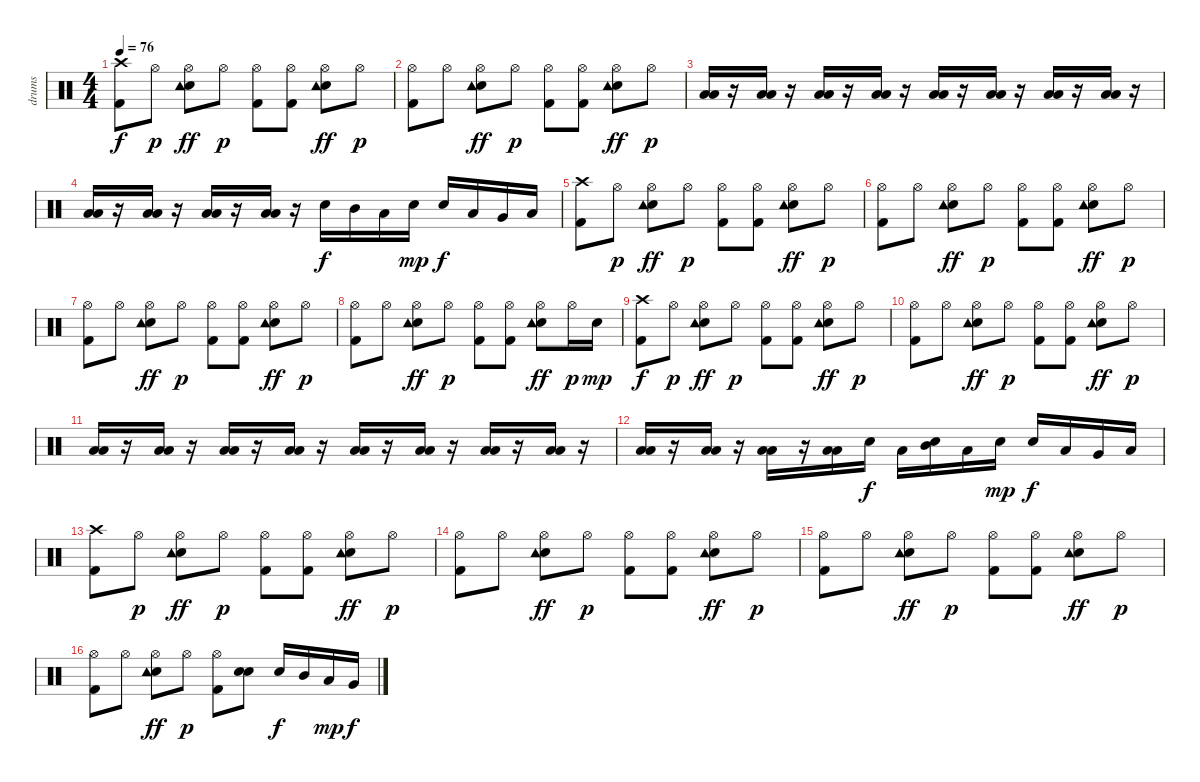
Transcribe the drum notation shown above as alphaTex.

\track ("drums" "drums") {instrument percussion}
\staff {score}
\articulation defaults
\ts (4 4)
\tempo 76
\clef neutral
\ks c
("Crash high (hit)" "Kick (hit) 2").8{dy f} "Hi-Hat (open)".8{dy p} ("Hi-Hat (open)" "Snare (hit) 2" "Tambourine (hit)").8{dy ff} "Hi-Hat (open)".8{dy p} ("Hi-Hat (open)" "Kick (hit) 2").8 ("Hi-Hat (open)" "Kick (hit) 2").8 ("Hi-Hat (open)" "Snare (hit) 2" "Tambourine (hit)").8{dy ff} "Hi-Hat (open)".8{dy p} |
("Hi-Hat (open)" "Kick (hit) 2").8 "Hi-Hat (open)".8 ("Hi-Hat (open)" "Snare (hit) 2" "Tambourine (hit)").8{dy ff} "Hi-Hat (open)".8{dy p} ("Hi-Hat (open)" "Kick (hit) 2").8 ("Hi-Hat (open)" "Kick (hit) 2").8 ("Hi-Hat (open)" "Snare (hit) 2" "Tambourine (hit)").8{dy ff} "Hi-Hat (open)".8{dy p} |
("Low Tom (hit)" "Low Floor Tom (hit)").16{volume 16} r.16 ("Low Tom (hit)" "Low Floor Tom (hit)").16 r.16 ("Low Tom (hit)" "Low Floor Tom (hit)").16 r.16 ("Low Tom (hit)" "Low Floor Tom (hit)").16 r.16 ("Low Tom (hit)" "Low Floor Tom (hit)").16 r.16 ("Low Tom (hit)" "Low Floor Tom (hit)").16 r.16 ("Low Tom (hit)" "Low Floor Tom (hit)").16 r.16 ("Low Tom (hit)" "Low Floor Tom (hit)").16 r.16 |
("Low Tom (hit)" "Low Floor Tom (hit)").16 r.16 ("Low Tom (hit)" "Low Floor Tom (hit)").16 r.16 ("Low Tom (hit)" "Low Floor Tom (hit)").16 r.16 ("Low Tom (hit)" "Low Floor Tom (hit)").16 r.16 "Snare (hit) 2".16{dy f} "Mid Tom (hit)".16 "Low Tom (hit)".16 "Snare (hit) 2".16{dy mp} "Snare (hit) 2".16{dy f} "Low Tom (hit)".16 "Very Low Tom (hit)".16 "Low Floor Tom (hit)".16 |
("Crash high (hit)" "Kick (hit) 2").8 "Hi-Hat (open)".8{dy p} ("Hi-Hat (open)" "Snare (hit) 2" "Tambourine (hit)").8{dy ff} "Hi-Hat (open)".8{dy p} ("Hi-Hat (open)" "Kick (hit) 2").8 ("Hi-Hat (open)" "Kick (hit) 2").8 ("Hi-Hat (open)" "Snare (hit) 2" "Tambourine (hit)").8{dy ff} "Hi-Hat (open)".8{dy p} |
("Hi-Hat (open)" "Kick (hit) 2").8 "Hi-Hat (open)".8 ("Hi-Hat (open)" "Snare (hit) 2" "Tambourine (hit)").8{dy ff} "Hi-Hat (open)".8{dy p} ("Hi-Hat (open)" "Kick (hit) 2").8 ("Hi-Hat (open)" "Kick (hit) 2").8 ("Hi-Hat (open)" "Snare (hit) 2" "Tambourine (hit)").8{dy ff} "Hi-Hat (open)".8{dy p} |
("Hi-Hat (open)" "Kick (hit) 2").8 "Hi-Hat (open)".8 ("Hi-Hat (open)" "Snare (hit) 2" "Tambourine (hit)").8{dy ff} "Hi-Hat (open)".8{dy p} ("Hi-Hat (open)" "Kick (hit) 2").8 ("Hi-Hat (open)" "Kick (hit) 2").8 ("Hi-Hat (open)" "Snare (hit) 2" "Tambourine (hit)").8{dy ff} "Hi-Hat (open)".8{dy p} |
("Hi-Hat (open)" "Kick (hit) 2").8 "Hi-Hat (open)".8 ("Hi-Hat (open)" "Snare (hit) 2" "Tambourine (hit)").8{dy ff} "Hi-Hat (open)".8{dy p} ("Hi-Hat (open)" "Kick (hit) 2").8 ("Hi-Hat (open)" "Kick (hit) 2").8 ("Hi-Hat (open)" "Snare (hit) 2" "Tambourine (hit)").8{dy ff} "Hi-Hat (open)".16{dy p} "Snare (hit) 2".16{dy mp} |
("Crash high (hit)" "Kick (hit) 2").8{dy f} "Hi-Hat (open)".8{dy p} ("Hi-Hat (open)" "Snare (hit) 2" "Tambourine (hit)").8{dy ff} "Hi-Hat (open)".8{dy p} ("Hi-Hat (open)" "Kick (hit) 2").8 ("Hi-Hat (open)" "Kick (hit) 2").8 ("Hi-Hat (open)" "Snare (hit) 2" "Tambourine (hit)").8{dy ff} "Hi-Hat (open)".8{dy p} |
("Hi-Hat (open)" "Kick (hit) 2").8 "Hi-Hat (open)".8 ("Hi-Hat (open)" "Snare (hit) 2" "Tambourine (hit)").8{dy ff} "Hi-Hat (open)".8{dy p} ("Hi-Hat (open)" "Kick (hit) 2").8 ("Hi-Hat (open)" "Kick (hit) 2").8 ("Hi-Hat (open)" "Snare (hit) 2" "Tambourine (hit)").8{dy ff} "Hi-Hat (open)".8{dy p} |
("Low Tom (hit)" "Low Floor Tom (hit)").16{volume 16} r.16 ("Low Tom (hit)" "Low Floor Tom (hit)").16 r.16 ("Low Tom (hit)" "Low Floor Tom (hit)").16 r.16 ("Low Tom (hit)" "Low Floor Tom (hit)").16 r.16 ("Low Tom (hit)" "Low Floor Tom (hit)").16 r.16 ("Low Tom (hit)" "Low Floor Tom (hit)").16 r.16 ("Low Tom (hit)" "Low Floor Tom (hit)").16 r.16 ("Low Tom (hit)" "Low Floor Tom (hit)").16 r.16 |
("Low Tom (hit)" "Low Floor Tom (hit)").16 r.16 ("Low Tom (hit)" "Low Floor Tom (hit)").16 r.16 ("Low Tom (hit)" "Low Floor Tom (hit)").16 r.16 ("Low Tom (hit)" "Low Floor Tom (hit)").16 "Snare (hit)".16{dy f} "Low Tom (hit)".16 ("Snare (hit) 2" "Mid Tom (hit)").16 "Low Tom (hit)".16 "Snare (hit) 2".16{dy mp} "Snare (hit) 2".16{dy f} "Low Tom (hit)".16 "Very Low Tom (hit)".16 "Low Floor Tom (hit)".16 |
("Crash high (hit)" "Kick (hit) 2").8 "Hi-Hat (open)".8{dy p} ("Hi-Hat (open)" "Snare (hit) 2" "Tambourine (hit)").8{dy ff} "Hi-Hat (open)".8{dy p} ("Hi-Hat (open)" "Kick (hit) 2").8 ("Hi-Hat (open)" "Kick (hit) 2").8 ("Hi-Hat (open)" "Snare (hit) 2" "Tambourine (hit)").8{dy ff} "Hi-Hat (open)".8{dy p} |
("Hi-Hat (open)" "Kick (hit) 2").8 "Hi-Hat (open)".8 ("Hi-Hat (open)" "Snare (hit) 2" "Tambourine (hit)").8{dy ff} "Hi-Hat (open)".8{dy p} ("Hi-Hat (open)" "Kick (hit) 2").8 ("Hi-Hat (open)" "Kick (hit) 2").8 ("Hi-Hat (open)" "Snare (hit) 2" "Tambourine (hit)").8{dy ff} "Hi-Hat (open)".8{dy p} |
("Hi-Hat (open)" "Kick (hit) 2").8 "Hi-Hat (open)".8 ("Hi-Hat (open)" "Snare (hit) 2" "Tambourine (hit)").8{dy ff} "Hi-Hat (open)".8{dy p} ("Hi-Hat (open)" "Kick (hit) 2").8 ("Hi-Hat (open)" "Kick (hit) 2").8 ("Hi-Hat (open)" "Snare (hit) 2" "Tambourine (hit)").8{dy ff} "Hi-Hat (open)".8{dy p} |
("Hi-Hat (open)" "Kick (hit) 2").8 "Hi-Hat (open)".8 ("Hi-Hat (open)" "Snare (hit) 2" "Tambourine (hit)").8{dy ff} "Hi-Hat (open)".8{dy p} ("Hi-Hat (open)" "Kick (hit) 2").8 ("Snare (hit) 2" "Snare (hit) 2").8 "Snare (hit) 2".16{dy f} "Mid Tom (hit)".16 "Low Tom (hit)".16{dy mp} "Very Low Tom (hit)".16{dy f}
